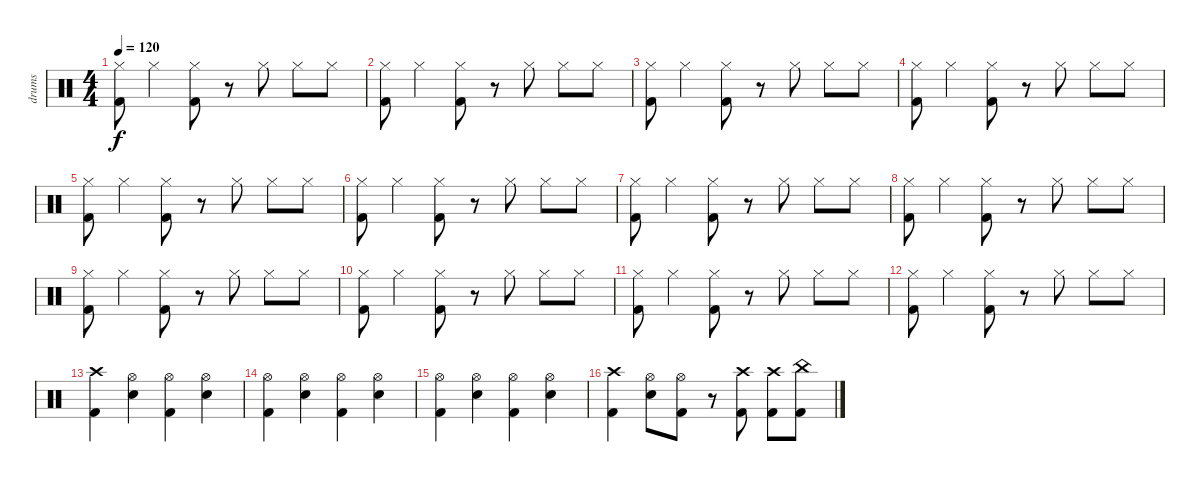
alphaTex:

\track ("drums" "drums") {instrument percussion}
\staff {score}
\articulation defaults
\ts (4 4)
\tempo 120
\clef neutral
\ks c
("Kick (hit) 2" "Hi-Hat (closed)").8{dy f} "Hi-Hat (closed)".4 ("Kick (hit) 2" "Hi-Hat (closed)").8 r.8 "Hi-Hat (closed)".8 "Hi-Hat (closed)".8 "Hi-Hat (closed)".8 |
("Kick (hit) 2" "Hi-Hat (closed)").8 "Hi-Hat (closed)".4 ("Kick (hit) 2" "Hi-Hat (closed)").8 r.8 "Hi-Hat (closed)".8 "Hi-Hat (closed)".8 "Hi-Hat (closed)".8 |
("Kick (hit) 2" "Hi-Hat (closed)").8 "Hi-Hat (closed)".4 ("Kick (hit) 2" "Hi-Hat (closed)").8 r.8 "Hi-Hat (closed)".8 "Hi-Hat (closed)".8 "Hi-Hat (closed)".8 |
("Kick (hit) 2" "Hi-Hat (closed)").8 "Hi-Hat (closed)".4 ("Kick (hit) 2" "Hi-Hat (closed)").8 r.8 "Hi-Hat (closed)".8 "Hi-Hat (closed)".8 "Hi-Hat (closed)".8 |
("Kick (hit) 2" "Hi-Hat (closed)").8 "Hi-Hat (closed)".4 ("Kick (hit) 2" "Hi-Hat (closed)").8 r.8 "Hi-Hat (closed)".8 "Hi-Hat (closed)".8 "Hi-Hat (closed)".8 |
("Kick (hit) 2" "Hi-Hat (closed)").8 "Hi-Hat (closed)".4 ("Kick (hit) 2" "Hi-Hat (closed)").8 r.8 "Hi-Hat (closed)".8 "Hi-Hat (closed)".8 "Hi-Hat (closed)".8 |
("Kick (hit) 2" "Hi-Hat (closed)").8 "Hi-Hat (closed)".4 ("Kick (hit) 2" "Hi-Hat (closed)").8 r.8 "Hi-Hat (closed)".8 "Hi-Hat (closed)".8 "Hi-Hat (closed)".8 |
("Kick (hit) 2" "Hi-Hat (closed)").8 "Hi-Hat (closed)".4 ("Kick (hit) 2" "Hi-Hat (closed)").8 r.8 "Hi-Hat (closed)".8 "Hi-Hat (closed)".8 "Hi-Hat (closed)".8 |
("Kick (hit) 2" "Hi-Hat (closed)").8 "Hi-Hat (closed)".4 ("Kick (hit) 2" "Hi-Hat (closed)").8 r.8 "Hi-Hat (closed)".8 "Hi-Hat (closed)".8 "Hi-Hat (closed)".8 |
("Kick (hit) 2" "Hi-Hat (closed)").8 "Hi-Hat (closed)".4 ("Kick (hit) 2" "Hi-Hat (closed)").8 r.8 "Hi-Hat (closed)".8 "Hi-Hat (closed)".8 "Hi-Hat (closed)".8 |
("Kick (hit) 2" "Hi-Hat (closed)").8 "Hi-Hat (closed)".4 ("Kick (hit) 2" "Hi-Hat (closed)").8 r.8 "Hi-Hat (closed)".8 "Hi-Hat (closed)".8 "Hi-Hat (closed)".8 |
("Kick (hit) 2" "Hi-Hat (closed)").8 "Hi-Hat (closed)".4 ("Kick (hit) 2" "Hi-Hat (closed)").8 r.8 "Hi-Hat (closed)".8 "Hi-Hat (closed)".8 "Hi-Hat (closed)".8 |
("Kick (hit) 2" "Crash high (hit)").4 ("Snare (hit) 2" "Hi-Hat (open)").4 ("Kick (hit) 2" "Hi-Hat (open)").4 ("Snare (hit) 2" "Hi-Hat (open)").4 |
("Kick (hit) 2" "Hi-Hat (open)").4 ("Snare (hit) 2" "Hi-Hat (open)").4 ("Kick (hit) 2" "Hi-Hat (open)").4 ("Snare (hit) 2" "Hi-Hat (open)").4 |
("Kick (hit) 2" "Hi-Hat (open)").4 ("Snare (hit) 2" "Hi-Hat (open)").4 ("Kick (hit) 2" "Hi-Hat (open)").4 ("Snare (hit) 2" "Hi-Hat (open)").4 |
("Kick (hit) 2" "Crash high (hit)").4 ("Snare (hit) 2" "Hi-Hat (open)").8 ("Kick (hit) 2" "Hi-Hat (open)").8 r.8 ("Kick (hit) 2" "Crash high (hit)").8 ("Kick (hit) 2" "Crash high (hit)").8 ("Kick (hit) 2" "China (hit)").8
